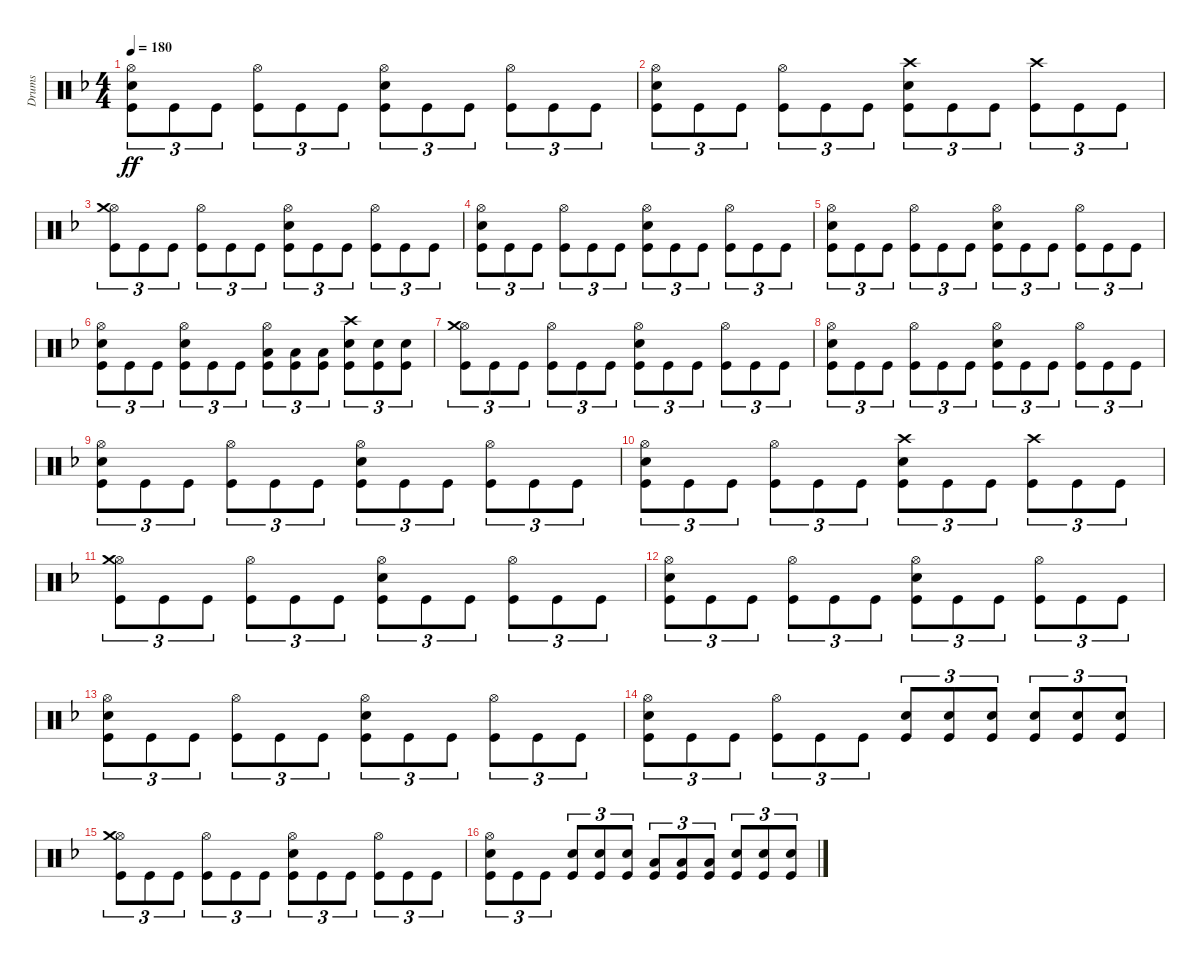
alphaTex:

\track ("Drums" "Drums") {instrument percussion}
\staff {score}
\articulation defaults
\ts (4 4)
\tempo 180
\clef neutral
\ks dminor
("Hi-Hat (open)" "Snare (hit) 2" "Kick (hit)").8{tu (3 2) dy ff} "Kick (hit)".8{tu (3 2)} "Kick (hit)".8{tu (3 2)} ("Hi-Hat (open)" "Kick (hit)").8{tu (3 2)} "Kick (hit)".8{tu (3 2)} "Kick (hit)".8{tu (3 2)} ("Hi-Hat (open)" "Snare (hit) 2" "Kick (hit)").8{tu (3 2)} "Kick (hit)".8{tu (3 2)} "Kick (hit)".8{tu (3 2)} ("Hi-Hat (open)" "Kick (hit)").8{tu (3 2)} "Kick (hit)".8{tu (3 2)} "Kick (hit)".8{tu (3 2)} |
("Hi-Hat (open)" "Snare (hit) 2" "Kick (hit)").8{tu (3 2)} "Kick (hit)".8{tu (3 2)} "Kick (hit)".8{tu (3 2)} ("Hi-Hat (open)" "Kick (hit)").8{tu (3 2)} "Kick (hit)".8{tu (3 2)} "Kick (hit)".8{tu (3 2)} ("Crash high (hit)" "Snare (hit) 2" "Kick (hit)").8{tu (3 2)} "Kick (hit)".8{tu (3 2)} "Kick (hit)".8{tu (3 2)} ("Crash high (hit)" "Kick (hit)").8{tu (3 2)} "Kick (hit)".8{tu (3 2)} "Kick (hit)".8{tu (3 2)} |
("Hi-Hat (open)" "Crash medium (hit)" "Kick (hit)").8{tu (3 2)} "Kick (hit)".8{tu (3 2)} "Kick (hit)".8{tu (3 2)} ("Hi-Hat (open)" "Kick (hit)").8{tu (3 2)} "Kick (hit)".8{tu (3 2)} "Kick (hit)".8{tu (3 2)} ("Hi-Hat (open)" "Snare (hit) 2" "Kick (hit)").8{tu (3 2)} "Kick (hit)".8{tu (3 2)} "Kick (hit)".8{tu (3 2)} ("Hi-Hat (open)" "Kick (hit)").8{tu (3 2)} "Kick (hit)".8{tu (3 2)} "Kick (hit)".8{tu (3 2)} |
("Hi-Hat (open)" "Snare (hit) 2" "Kick (hit)").8{tu (3 2)} "Kick (hit)".8{tu (3 2)} "Kick (hit)".8{tu (3 2)} ("Hi-Hat (open)" "Kick (hit)").8{tu (3 2)} "Kick (hit)".8{tu (3 2)} "Kick (hit)".8{tu (3 2)} ("Hi-Hat (open)" "Snare (hit) 2" "Kick (hit)").8{tu (3 2)} "Kick (hit)".8{tu (3 2)} "Kick (hit)".8{tu (3 2)} ("Hi-Hat (open)" "Kick (hit)").8{tu (3 2)} "Kick (hit)".8{tu (3 2)} "Kick (hit)".8{tu (3 2)} |
("Hi-Hat (open)" "Snare (hit) 2" "Kick (hit)").8{tu (3 2)} "Kick (hit)".8{tu (3 2)} "Kick (hit)".8{tu (3 2)} ("Hi-Hat (open)" "Kick (hit)").8{tu (3 2)} "Kick (hit)".8{tu (3 2)} "Kick (hit)".8{tu (3 2)} ("Hi-Hat (open)" "Snare (hit) 2" "Kick (hit)").8{tu (3 2)} "Kick (hit)".8{tu (3 2)} "Kick (hit)".8{tu (3 2)} ("Hi-Hat (open)" "Kick (hit)").8{tu (3 2)} "Kick (hit)".8{tu (3 2)} "Kick (hit)".8{tu (3 2)} |
("Hi-Hat (open)" "Snare (hit) 2" "Kick (hit)").8{tu (3 2)} "Kick (hit)".8{tu (3 2)} "Kick (hit)".8{tu (3 2)} ("Hi-Hat (open)" "Snare (hit) 2" "Kick (hit)").8{tu (3 2)} "Kick (hit)".8{tu (3 2)} "Kick (hit)".8{tu (3 2)} ("Hi-Hat (open)" "Low Tom (hit)" "Kick (hit)").8{tu (3 2)} ("Low Tom (hit)" "Kick (hit)").8{tu (3 2)} ("Low Tom (hit)" "Kick (hit)").8{tu (3 2)} ("Crash high (hit)" "Snare (hit) 2" "Kick (hit)").8{tu (3 2)} ("Snare (hit) 2" "Kick (hit)").8{tu (3 2)} ("Snare (hit) 2" "Kick (hit)").8{tu (3 2)} |
("Hi-Hat (open)" "Crash medium (hit)" "Kick (hit)").8{tu (3 2)} "Kick (hit)".8{tu (3 2)} "Kick (hit)".8{tu (3 2)} ("Hi-Hat (open)" "Kick (hit)").8{tu (3 2)} "Kick (hit)".8{tu (3 2)} "Kick (hit)".8{tu (3 2)} ("Hi-Hat (open)" "Snare (hit) 2" "Kick (hit)").8{tu (3 2)} "Kick (hit)".8{tu (3 2)} "Kick (hit)".8{tu (3 2)} ("Hi-Hat (open)" "Kick (hit)").8{tu (3 2)} "Kick (hit)".8{tu (3 2)} "Kick (hit)".8{tu (3 2)} |
("Hi-Hat (open)" "Snare (hit) 2" "Kick (hit)").8{tu (3 2)} "Kick (hit)".8{tu (3 2)} "Kick (hit)".8{tu (3 2)} ("Hi-Hat (open)" "Kick (hit)").8{tu (3 2)} "Kick (hit)".8{tu (3 2)} "Kick (hit)".8{tu (3 2)} ("Hi-Hat (open)" "Snare (hit) 2" "Kick (hit)").8{tu (3 2)} "Kick (hit)".8{tu (3 2)} "Kick (hit)".8{tu (3 2)} ("Hi-Hat (open)" "Kick (hit)").8{tu (3 2)} "Kick (hit)".8{tu (3 2)} "Kick (hit)".8{tu (3 2)} |
("Hi-Hat (open)" "Snare (hit) 2" "Kick (hit)").8{tu (3 2)} "Kick (hit)".8{tu (3 2)} "Kick (hit)".8{tu (3 2)} ("Hi-Hat (open)" "Kick (hit)").8{tu (3 2)} "Kick (hit)".8{tu (3 2)} "Kick (hit)".8{tu (3 2)} ("Hi-Hat (open)" "Snare (hit) 2" "Kick (hit)").8{tu (3 2)} "Kick (hit)".8{tu (3 2)} "Kick (hit)".8{tu (3 2)} ("Hi-Hat (open)" "Kick (hit)").8{tu (3 2)} "Kick (hit)".8{tu (3 2)} "Kick (hit)".8{tu (3 2)} |
("Hi-Hat (open)" "Snare (hit) 2" "Kick (hit)").8{tu (3 2)} "Kick (hit)".8{tu (3 2)} "Kick (hit)".8{tu (3 2)} ("Hi-Hat (open)" "Kick (hit)").8{tu (3 2)} "Kick (hit)".8{tu (3 2)} "Kick (hit)".8{tu (3 2)} ("Crash high (hit)" "Snare (hit) 2" "Kick (hit)").8{tu (3 2)} "Kick (hit)".8{tu (3 2)} "Kick (hit)".8{tu (3 2)} ("Crash high (hit)" "Kick (hit)").8{tu (3 2)} "Kick (hit)".8{tu (3 2)} "Kick (hit)".8{tu (3 2)} |
("Hi-Hat (open)" "Crash medium (hit)" "Kick (hit)").8{tu (3 2)} "Kick (hit)".8{tu (3 2)} "Kick (hit)".8{tu (3 2)} ("Hi-Hat (open)" "Kick (hit)").8{tu (3 2)} "Kick (hit)".8{tu (3 2)} "Kick (hit)".8{tu (3 2)} ("Hi-Hat (open)" "Snare (hit) 2" "Kick (hit)").8{tu (3 2)} "Kick (hit)".8{tu (3 2)} "Kick (hit)".8{tu (3 2)} ("Hi-Hat (open)" "Kick (hit)").8{tu (3 2)} "Kick (hit)".8{tu (3 2)} "Kick (hit)".8{tu (3 2)} |
("Hi-Hat (open)" "Snare (hit) 2" "Kick (hit)").8{tu (3 2)} "Kick (hit)".8{tu (3 2)} "Kick (hit)".8{tu (3 2)} ("Hi-Hat (open)" "Kick (hit)").8{tu (3 2)} "Kick (hit)".8{tu (3 2)} "Kick (hit)".8{tu (3 2)} ("Hi-Hat (open)" "Snare (hit) 2" "Kick (hit)").8{tu (3 2)} "Kick (hit)".8{tu (3 2)} "Kick (hit)".8{tu (3 2)} ("Hi-Hat (open)" "Kick (hit)").8{tu (3 2)} "Kick (hit)".8{tu (3 2)} "Kick (hit)".8{tu (3 2)} |
("Hi-Hat (open)" "Snare (hit) 2" "Kick (hit)").8{tu (3 2)} "Kick (hit)".8{tu (3 2)} "Kick (hit)".8{tu (3 2)} ("Hi-Hat (open)" "Kick (hit)").8{tu (3 2)} "Kick (hit)".8{tu (3 2)} "Kick (hit)".8{tu (3 2)} ("Hi-Hat (open)" "Snare (hit) 2" "Kick (hit)").8{tu (3 2)} "Kick (hit)".8{tu (3 2)} "Kick (hit)".8{tu (3 2)} ("Hi-Hat (open)" "Kick (hit)").8{tu (3 2)} "Kick (hit)".8{tu (3 2)} "Kick (hit)".8{tu (3 2)} |
("Hi-Hat (open)" "Snare (hit) 2" "Kick (hit)").8{tu (3 2)} "Kick (hit)".8{tu (3 2)} "Kick (hit)".8{tu (3 2)} ("Hi-Hat (open)" "Kick (hit)").8{tu (3 2)} "Kick (hit)".8{tu (3 2)} "Kick (hit)".8{tu (3 2)} ("Snare (hit) 2" "Kick (hit)").8{tu (3 2)} ("Snare (hit) 2" "Kick (hit)").8{tu (3 2)} ("Snare (hit) 2" "Kick (hit)").8{tu (3 2)} ("Snare (hit) 2" "Kick (hit)").8{tu (3 2)} ("Snare (hit) 2" "Kick (hit)").8{tu (3 2)} ("Snare (hit) 2" "Kick (hit)").8{tu (3 2)} |
("Hi-Hat (open)" "Crash medium (hit)" "Kick (hit)").8{tu (3 2)} "Kick (hit)".8{tu (3 2)} "Kick (hit)".8{tu (3 2)} ("Hi-Hat (open)" "Kick (hit)").8{tu (3 2)} "Kick (hit)".8{tu (3 2)} "Kick (hit)".8{tu (3 2)} ("Hi-Hat (open)" "Snare (hit) 2" "Kick (hit)").8{tu (3 2)} "Kick (hit)".8{tu (3 2)} "Kick (hit)".8{tu (3 2)} ("Hi-Hat (open)" "Kick (hit)").8{tu (3 2)} "Kick (hit)".8{tu (3 2)} "Kick (hit)".8{tu (3 2)} |
("Hi-Hat (open)" "Snare (hit) 2" "Kick (hit)").8{tu (3 2)} "Kick (hit)".8{tu (3 2)} "Kick (hit)".8{tu (3 2)} ("Snare (hit) 2" "Kick (hit)").8{tu (3 2)} ("Snare (hit) 2" "Kick (hit)").8{tu (3 2)} ("Snare (hit) 2" "Kick (hit)").8{tu (3 2)} ("Low Tom (hit)" "Kick (hit)").8{tu (3 2)} ("Low Tom (hit)" "Kick (hit)").8{tu (3 2)} ("Low Tom (hit)" "Kick (hit)").8{tu (3 2)} ("Snare (hit) 2" "Kick (hit)").8{tu (3 2)} ("Snare (hit) 2" "Kick (hit)").8{tu (3 2)} ("Snare (hit) 2" "Kick (hit)").8{tu (3 2)}
